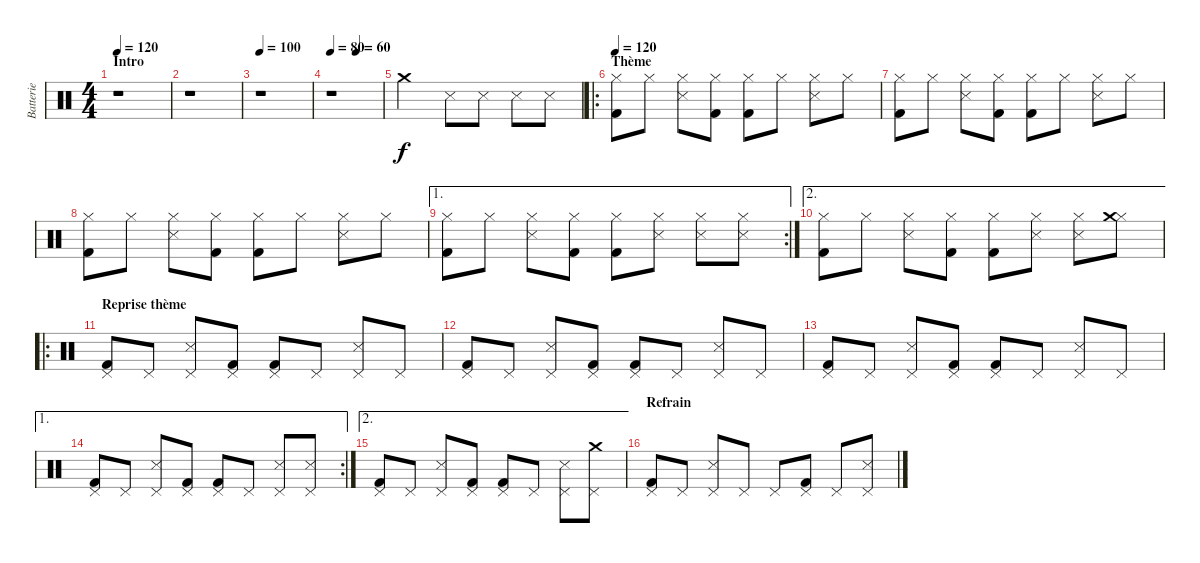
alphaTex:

\track ("Batterie" "Batterie") {instrument percussion}
\staff {score}
\articulation defaults
\ts (4 4)
\section ("" "Intro")
\tempo 120
\clef neutral
\ks c
r.1{dy f} |
r.1 |
\tempo 100
r.1 |
\tempo 80
\tempo (60 0.5)
r.1 |
"Crash medium (hit)".2 "Snare (side stick) 3".8 "Snare (side stick) 3".8 "Snare (side stick) 3".8 "Snare (side stick) 3".8 |
\ro
\section ("" "Thème")
\tempo 120
("Hi-Hat (closed)" "Kick (hit) 2").8 "Hi-Hat (closed)".8 ("Hi-Hat (closed)" "Snare (side stick) 3").8 ("Hi-Hat (closed)" "Kick (hit) 2").8 ("Hi-Hat (closed)" "Kick (hit) 2").8 "Hi-Hat (closed)".8 ("Hi-Hat (closed)" "Snare (side stick) 3").8 "Hi-Hat (closed)".8 |
("Hi-Hat (closed)" "Kick (hit) 2").8 "Hi-Hat (closed)".8 ("Hi-Hat (closed)" "Snare (side stick) 3").8 ("Hi-Hat (closed)" "Kick (hit) 2").8 ("Hi-Hat (closed)" "Kick (hit) 2").8 "Hi-Hat (closed)".8 ("Hi-Hat (closed)" "Snare (side stick) 3").8 "Hi-Hat (closed)".8 |
("Hi-Hat (closed)" "Kick (hit) 2").8 "Hi-Hat (closed)".8 ("Hi-Hat (closed)" "Snare (side stick) 3").8 ("Hi-Hat (closed)" "Kick (hit) 2").8 ("Hi-Hat (closed)" "Kick (hit) 2").8 "Hi-Hat (closed)".8 ("Hi-Hat (closed)" "Snare (side stick) 3").8 "Hi-Hat (closed)".8 |
\ae 1
\rc 2
("Hi-Hat (closed)" "Kick (hit) 2").8 "Hi-Hat (closed)".8 ("Hi-Hat (closed)" "Snare (side stick) 3").8 ("Hi-Hat (closed)" "Kick (hit) 2").8 ("Hi-Hat (closed)" "Kick (hit) 2").8 ("Hi-Hat (closed)" "Snare (side stick) 3").8 ("Hi-Hat (closed)" "Snare (side stick) 3").8 ("Hi-Hat (closed)" "Snare (side stick) 3").8 |
\ae 2
("Hi-Hat (closed)" "Kick (hit) 2").8 "Hi-Hat (closed)".8 ("Hi-Hat (closed)" "Snare (side stick) 3").8 ("Hi-Hat (closed)" "Kick (hit) 2").8 ("Hi-Hat (closed)" "Kick (hit) 2").8 ("Hi-Hat (closed)" "Snare (side stick) 3").8 ("Hi-Hat (closed)" "Snare (side stick) 3").8 ("Hi-Hat (closed)" "Crash medium (hit)").8 |
\ro
\section ("" "Reprise thème")
("Pedal Hi-Hat (hit)" "Kick (hit) 2").8 "Pedal Hi-Hat (hit)".8 ("Pedal Hi-Hat (hit)" "Snare (side stick) 3").8 ("Pedal Hi-Hat (hit)" "Kick (hit) 2").8 ("Pedal Hi-Hat (hit)" "Kick (hit) 2").8 "Pedal Hi-Hat (hit)".8 ("Pedal Hi-Hat (hit)" "Snare (side stick) 3").8 "Pedal Hi-Hat (hit)".8 |
("Pedal Hi-Hat (hit)" "Kick (hit) 2").8 "Pedal Hi-Hat (hit)".8 ("Pedal Hi-Hat (hit)" "Snare (side stick) 3").8 ("Pedal Hi-Hat (hit)" "Kick (hit) 2").8 ("Pedal Hi-Hat (hit)" "Kick (hit) 2").8 "Pedal Hi-Hat (hit)".8 ("Pedal Hi-Hat (hit)" "Snare (side stick) 3").8 "Pedal Hi-Hat (hit)".8 |
("Pedal Hi-Hat (hit)" "Kick (hit) 2").8 "Pedal Hi-Hat (hit)".8 ("Pedal Hi-Hat (hit)" "Snare (side stick) 3").8 ("Pedal Hi-Hat (hit)" "Kick (hit) 2").8 ("Pedal Hi-Hat (hit)" "Kick (hit) 2").8 "Pedal Hi-Hat (hit)".8 ("Pedal Hi-Hat (hit)" "Snare (side stick) 3").8 "Pedal Hi-Hat (hit)".8 |
\ae 1
\rc 2
("Pedal Hi-Hat (hit)" "Kick (hit) 2").8 "Pedal Hi-Hat (hit)".8 ("Pedal Hi-Hat (hit)" "Snare (side stick) 3").8 ("Pedal Hi-Hat (hit)" "Kick (hit) 2").8 ("Pedal Hi-Hat (hit)" "Kick (hit) 2").8 "Pedal Hi-Hat (hit)".8 ("Pedal Hi-Hat (hit)" "Snare (side stick) 3").8 ("Pedal Hi-Hat (hit)" "Snare (side stick) 3").8 |
\ae 2
("Pedal Hi-Hat (hit)" "Kick (hit) 2").8 "Pedal Hi-Hat (hit)".8 ("Pedal Hi-Hat (hit)" "Snare (side stick) 3").8 ("Pedal Hi-Hat (hit)" "Kick (hit) 2").8 ("Pedal Hi-Hat (hit)" "Kick (hit) 2").8 "Pedal Hi-Hat (hit)".8 ("Pedal Hi-Hat (hit)" "Snare (side stick) 3").8 ("Pedal Hi-Hat (hit)" "Crash medium (hit)").8 |
\section ("" "Refrain")
("Pedal Hi-Hat (hit)" "Kick (hit) 2").8 "Pedal Hi-Hat (hit)".8 ("Pedal Hi-Hat (hit)" "Snare (side stick) 3").8 "Pedal Hi-Hat (hit)".8 "Pedal Hi-Hat (hit)".8 ("Pedal Hi-Hat (hit)" "Kick (hit) 2").8 "Pedal Hi-Hat (hit)".8 ("Pedal Hi-Hat (hit)" "Snare (side stick) 3").8
